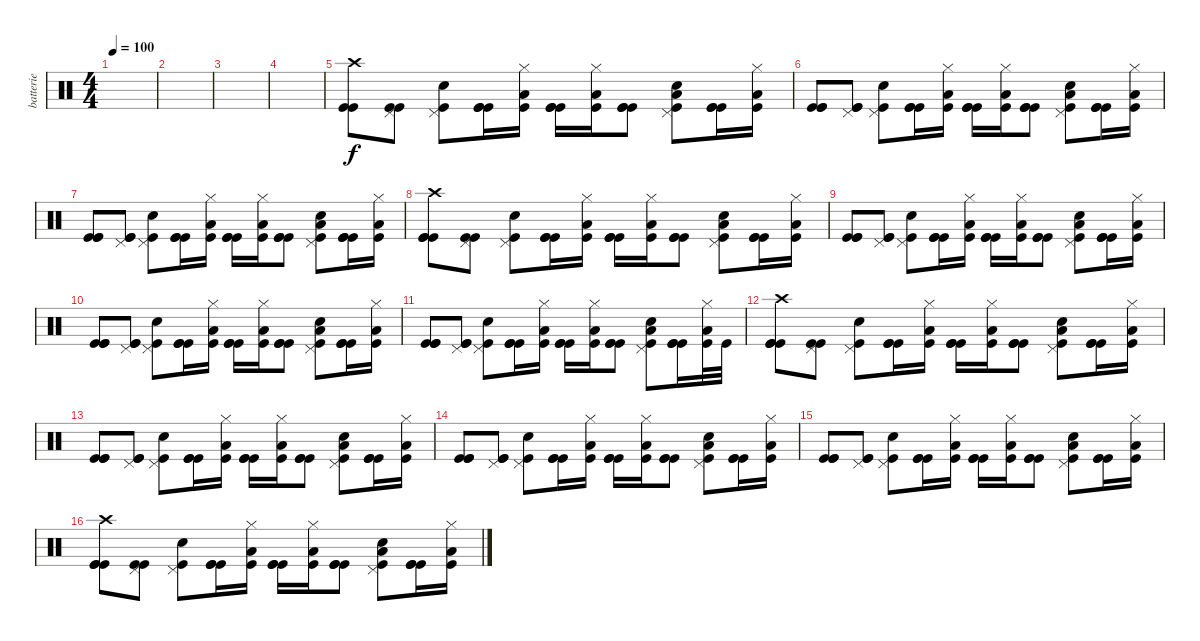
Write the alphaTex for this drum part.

\track ("batterie" "batterie") {instrument percussion}
\staff {score}
\articulation defaults
\ts (4 4)
\tempo 100
\clef neutral
\ks c
|
|
|
|
("Kick (hit)" "Crash high (hit)" "Kick (hit)").8 ("Kick (hit)" "Pedal Hi-Hat (hit)" "Kick (hit)").8 ("Electric Snare (hit)" "Pedal Hi-Hat (hit)" "Kick (hit)").8 ("Kick (hit)" "Kick (hit)" "Kick (hit)").16 ("Low Floor Tom (hit)" "Hi-Hat (closed)" "Kick (hit)").16 ("Kick (hit)" "Kick (hit)" "Kick (hit)").16 ("Low Floor Tom (hit)" "Hi-Hat (closed)" "Kick (hit)").16 ("Kick (hit)" "Kick (hit)" "Kick (hit)").8 ("Electric Snare (hit)" "Low Floor Tom (hit)" "Pedal Hi-Hat (hit)" "Kick (hit)").8 ("Kick (hit)" "Kick (hit)" "Kick (hit)").16 ("Low Floor Tom (hit)" "Hi-Hat (closed)" "Kick (hit)").16 |
("Kick (hit)" "Kick (hit)" "Kick (hit)").8 ("Kick (hit)" "Pedal Hi-Hat (hit)" "Kick (hit)").8 ("Electric Snare (hit)" "Pedal Hi-Hat (hit)" "Kick (hit)").8 ("Kick (hit)" "Kick (hit)" "Kick (hit)").16 ("Low Floor Tom (hit)" "Hi-Hat (closed)" "Kick (hit)").16 ("Kick (hit)" "Kick (hit)" "Kick (hit)").16 ("Low Floor Tom (hit)" "Hi-Hat (closed)" "Kick (hit)").16 ("Kick (hit)" "Kick (hit)" "Kick (hit)").8 ("Electric Snare (hit)" "Low Floor Tom (hit)" "Pedal Hi-Hat (hit)" "Kick (hit)").8 ("Kick (hit)" "Kick (hit)" "Kick (hit)").16 ("Low Floor Tom (hit)" "Hi-Hat (closed)" "Kick (hit)").16 |
("Kick (hit)" "Kick (hit)" "Kick (hit)").8 ("Kick (hit)" "Pedal Hi-Hat (hit)" "Kick (hit)").8 ("Electric Snare (hit)" "Pedal Hi-Hat (hit)" "Kick (hit)").8 ("Kick (hit)" "Kick (hit)" "Kick (hit)").16 ("Low Floor Tom (hit)" "Hi-Hat (closed)" "Kick (hit)").16 ("Kick (hit)" "Kick (hit)" "Kick (hit)").16 ("Low Floor Tom (hit)" "Hi-Hat (closed)" "Kick (hit)").16 ("Kick (hit)" "Kick (hit)" "Kick (hit)").8 ("Electric Snare (hit)" "Low Floor Tom (hit)" "Pedal Hi-Hat (hit)" "Kick (hit)").8 ("Kick (hit)" "Kick (hit)" "Kick (hit)").16 ("Low Floor Tom (hit)" "Hi-Hat (closed)" "Kick (hit)").16 |
("Kick (hit)" "Crash high (hit)" "Kick (hit)" "Kick (hit)").8 ("Kick (hit)" "Pedal Hi-Hat (hit)" "Kick (hit)").8 ("Electric Snare (hit)" "Pedal Hi-Hat (hit)" "Kick (hit)").8 ("Kick (hit)" "Kick (hit)" "Kick (hit)").16 ("Low Floor Tom (hit)" "Hi-Hat (closed)" "Kick (hit)").16 ("Kick (hit)" "Kick (hit)" "Kick (hit)").16 ("Low Floor Tom (hit)" "Hi-Hat (closed)" "Kick (hit)").16 ("Kick (hit)" "Kick (hit)" "Kick (hit)").8 ("Electric Snare (hit)" "Low Floor Tom (hit)" "Pedal Hi-Hat (hit)" "Kick (hit)").8 ("Kick (hit)" "Kick (hit)" "Kick (hit)").16 ("Low Floor Tom (hit)" "Hi-Hat (closed)" "Kick (hit)").16 |
("Kick (hit)" "Kick (hit)" "Kick (hit)").8 ("Kick (hit)" "Pedal Hi-Hat (hit)" "Kick (hit)").8 ("Electric Snare (hit)" "Pedal Hi-Hat (hit)" "Kick (hit)").8 ("Kick (hit)" "Kick (hit)" "Kick (hit)").16 ("Low Floor Tom (hit)" "Hi-Hat (closed)" "Kick (hit)").16 ("Kick (hit)" "Kick (hit)" "Kick (hit)").16 ("Low Floor Tom (hit)" "Hi-Hat (closed)" "Kick (hit)").16 ("Kick (hit)" "Kick (hit)" "Kick (hit)").8 ("Electric Snare (hit)" "Low Floor Tom (hit)" "Pedal Hi-Hat (hit)" "Kick (hit)").8 ("Kick (hit)" "Kick (hit)" "Kick (hit)").16 ("Low Floor Tom (hit)" "Hi-Hat (closed)" "Kick (hit)").16 |
("Kick (hit)" "Kick (hit)" "Kick (hit)").8 ("Kick (hit)" "Pedal Hi-Hat (hit)" "Kick (hit)").8 ("Electric Snare (hit)" "Pedal Hi-Hat (hit)" "Kick (hit)").8 ("Kick (hit)" "Kick (hit)" "Kick (hit)").16 ("Low Floor Tom (hit)" "Hi-Hat (closed)" "Kick (hit)").16 ("Kick (hit)" "Kick (hit)" "Kick (hit)").16 ("Low Floor Tom (hit)" "Hi-Hat (closed)" "Kick (hit)").16 ("Kick (hit)" "Kick (hit)" "Kick (hit)").8 ("Electric Snare (hit)" "Low Floor Tom (hit)" "Pedal Hi-Hat (hit)" "Kick (hit)").8 ("Kick (hit)" "Kick (hit)" "Kick (hit)").16 ("Low Floor Tom (hit)" "Hi-Hat (closed)" "Kick (hit)").16 |
("Kick (hit)" "Kick (hit)" "Kick (hit)").8 ("Kick (hit)" "Pedal Hi-Hat (hit)" "Kick (hit)").8 ("Electric Snare (hit)" "Pedal Hi-Hat (hit)" "Kick (hit)").8 ("Kick (hit)" "Kick (hit)" "Kick (hit)").16 ("Low Floor Tom (hit)" "Hi-Hat (closed)" "Kick (hit)").16 ("Kick (hit)" "Kick (hit)" "Kick (hit)").16 ("Low Floor Tom (hit)" "Hi-Hat (closed)" "Kick (hit)").16 ("Kick (hit)" "Kick (hit)" "Kick (hit)").8 ("Electric Snare (hit)" "Low Floor Tom (hit)" "Pedal Hi-Hat (hit)" "Kick (hit)").8 ("Kick (hit)" "Kick (hit)" "Kick (hit)").16 ("Low Floor Tom (hit)" "Hi-Hat (closed)" "Kick (hit)").32 "Kick (hit)".32 |
("Kick (hit)" "Crash high (hit)" "Kick (hit)" "Kick (hit)").8 ("Kick (hit)" "Pedal Hi-Hat (hit)" "Kick (hit)").8 ("Electric Snare (hit)" "Pedal Hi-Hat (hit)" "Kick (hit)").8 ("Kick (hit)" "Kick (hit)" "Kick (hit)").16 ("Low Floor Tom (hit)" "Hi-Hat (closed)" "Kick (hit)").16 ("Kick (hit)" "Kick (hit)" "Kick (hit)").16 ("Low Floor Tom (hit)" "Hi-Hat (closed)" "Kick (hit)").16 ("Kick (hit)" "Kick (hit)" "Kick (hit)").8 ("Electric Snare (hit)" "Low Floor Tom (hit)" "Pedal Hi-Hat (hit)" "Kick (hit)").8 ("Kick (hit)" "Kick (hit)" "Kick (hit)").16 ("Low Floor Tom (hit)" "Hi-Hat (closed)" "Kick (hit)").16 |
("Kick (hit)" "Kick (hit)" "Kick (hit)").8 ("Kick (hit)" "Pedal Hi-Hat (hit)" "Kick (hit)").8 ("Electric Snare (hit)" "Pedal Hi-Hat (hit)" "Kick (hit)").8 ("Kick (hit)" "Kick (hit)" "Kick (hit)").16 ("Low Floor Tom (hit)" "Hi-Hat (closed)" "Kick (hit)").16 ("Kick (hit)" "Kick (hit)" "Kick (hit)").16 ("Low Floor Tom (hit)" "Hi-Hat (closed)" "Kick (hit)").16 ("Kick (hit)" "Kick (hit)" "Kick (hit)").8 ("Electric Snare (hit)" "Low Floor Tom (hit)" "Pedal Hi-Hat (hit)" "Kick (hit)").8 ("Kick (hit)" "Kick (hit)" "Kick (hit)").16 ("Low Floor Tom (hit)" "Hi-Hat (closed)" "Kick (hit)").16 |
("Kick (hit)" "Kick (hit)" "Kick (hit)").8 ("Kick (hit)" "Pedal Hi-Hat (hit)" "Kick (hit)").8 ("Electric Snare (hit)" "Pedal Hi-Hat (hit)" "Kick (hit)").8 ("Kick (hit)" "Kick (hit)" "Kick (hit)").16 ("Low Floor Tom (hit)" "Hi-Hat (closed)" "Kick (hit)").16 ("Kick (hit)" "Kick (hit)" "Kick (hit)").16 ("Low Floor Tom (hit)" "Hi-Hat (closed)" "Kick (hit)").16 ("Kick (hit)" "Kick (hit)" "Kick (hit)").8 ("Electric Snare (hit)" "Low Floor Tom (hit)" "Pedal Hi-Hat (hit)" "Kick (hit)").8 ("Kick (hit)" "Kick (hit)" "Kick (hit)").16 ("Low Floor Tom (hit)" "Hi-Hat (closed)" "Kick (hit)").16 |
("Kick (hit)" "Kick (hit)" "Kick (hit)").8 ("Kick (hit)" "Pedal Hi-Hat (hit)" "Kick (hit)").8 ("Electric Snare (hit)" "Pedal Hi-Hat (hit)" "Kick (hit)").8 ("Kick (hit)" "Kick (hit)" "Kick (hit)").16 ("Low Floor Tom (hit)" "Hi-Hat (closed)" "Kick (hit)").16 ("Kick (hit)" "Kick (hit)" "Kick (hit)").16 ("Low Floor Tom (hit)" "Hi-Hat (closed)" "Kick (hit)").16 ("Kick (hit)" "Kick (hit)" "Kick (hit)").8 ("Electric Snare (hit)" "Low Floor Tom (hit)" "Pedal Hi-Hat (hit)" "Kick (hit)").8 ("Kick (hit)" "Kick (hit)" "Kick (hit)").16 ("Low Floor Tom (hit)" "Hi-Hat (closed)" "Kick (hit)").16 |
("Kick (hit)" "Crash high (hit)" "Kick (hit)" "Kick (hit)").8 ("Kick (hit)" "Pedal Hi-Hat (hit)" "Kick (hit)").8 ("Electric Snare (hit)" "Pedal Hi-Hat (hit)" "Kick (hit)").8 ("Kick (hit)" "Kick (hit)" "Kick (hit)").16 ("Low Floor Tom (hit)" "Hi-Hat (closed)" "Kick (hit)").16 ("Kick (hit)" "Kick (hit)" "Kick (hit)").16 ("Low Floor Tom (hit)" "Hi-Hat (closed)" "Kick (hit)").16 ("Kick (hit)" "Kick (hit)" "Kick (hit)").8 ("Electric Snare (hit)" "Low Floor Tom (hit)" "Pedal Hi-Hat (hit)" "Kick (hit)").8 ("Kick (hit)" "Kick (hit)" "Kick (hit)").16 ("Low Floor Tom (hit)" "Hi-Hat (closed)" "Kick (hit)").16
